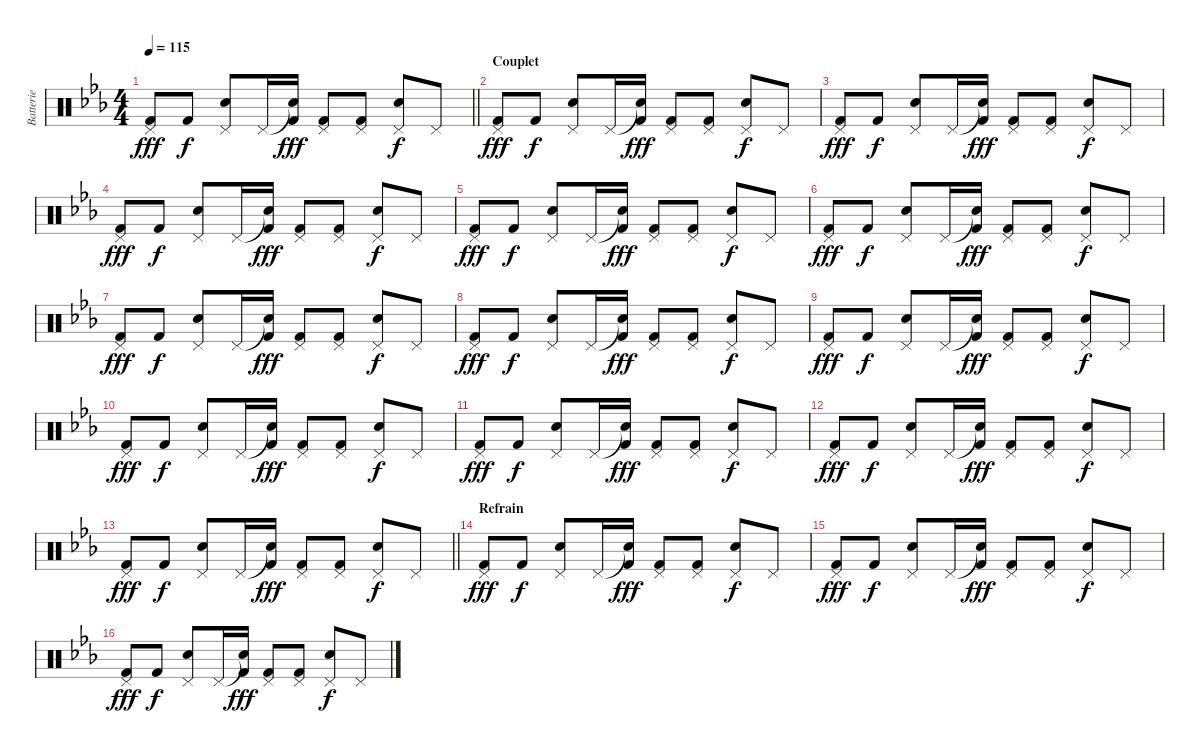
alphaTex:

\track ("Batterie" "Batterie") {instrument percussion}
\staff {score}
\articulation defaults
\ts (4 4)
\tempo 115
\clef neutral
\barLineRight lightlight
\ks eb
("Pedal Hi-Hat (hit)" "Kick (hit) 2").8{dy fff} "Kick (hit) 2".8{dy f} ("Pedal Hi-Hat (hit)" "Snare (hit) 2").8 "Pedal Hi-Hat (hit)".16 ("Snare (hit)"{t} "Kick (hit) 2").16{dy fff} ("Pedal Hi-Hat (hit)" "Kick (hit) 2").8 ("Pedal Hi-Hat (hit)" "Kick (hit) 2").8 ("Pedal Hi-Hat (hit)" "Snare (hit) 2").8{dy f} "Pedal Hi-Hat (hit)".8 |
\section ("" "Couplet")
("Pedal Hi-Hat (hit)" "Kick (hit) 2").8{dy fff} "Kick (hit) 2".8{dy f} ("Pedal Hi-Hat (hit)" "Snare (hit) 2").8 "Pedal Hi-Hat (hit)".16 ("Snare (hit)"{t} "Kick (hit) 2").16{dy fff} ("Pedal Hi-Hat (hit)" "Kick (hit) 2").8 ("Pedal Hi-Hat (hit)" "Kick (hit) 2").8 ("Pedal Hi-Hat (hit)" "Snare (hit) 2").8{dy f} "Pedal Hi-Hat (hit)".8 |
("Pedal Hi-Hat (hit)" "Kick (hit) 2").8{dy fff} "Kick (hit) 2".8{dy f} ("Pedal Hi-Hat (hit)" "Snare (hit) 2").8 "Pedal Hi-Hat (hit)".16 ("Snare (hit)"{t} "Kick (hit) 2").16{dy fff} ("Pedal Hi-Hat (hit)" "Kick (hit) 2").8 ("Pedal Hi-Hat (hit)" "Kick (hit) 2").8 ("Pedal Hi-Hat (hit)" "Snare (hit) 2").8{dy f} "Pedal Hi-Hat (hit)".8 |
("Pedal Hi-Hat (hit)" "Kick (hit) 2").8{dy fff} "Kick (hit) 2".8{dy f} ("Pedal Hi-Hat (hit)" "Snare (hit) 2").8 "Pedal Hi-Hat (hit)".16 ("Snare (hit)"{t} "Kick (hit) 2").16{dy fff} ("Pedal Hi-Hat (hit)" "Kick (hit) 2").8 ("Pedal Hi-Hat (hit)" "Kick (hit) 2").8 ("Pedal Hi-Hat (hit)" "Snare (hit) 2").8{dy f} "Pedal Hi-Hat (hit)".8 |
("Pedal Hi-Hat (hit)" "Kick (hit) 2").8{dy fff} "Kick (hit) 2".8{dy f} ("Pedal Hi-Hat (hit)" "Snare (hit) 2").8 "Pedal Hi-Hat (hit)".16 ("Snare (hit)"{t} "Kick (hit) 2").16{dy fff} ("Pedal Hi-Hat (hit)" "Kick (hit) 2").8 ("Pedal Hi-Hat (hit)" "Kick (hit) 2").8 ("Pedal Hi-Hat (hit)" "Snare (hit) 2").8{dy f} "Pedal Hi-Hat (hit)".8 |
("Pedal Hi-Hat (hit)" "Kick (hit) 2").8{dy fff} "Kick (hit) 2".8{dy f} ("Pedal Hi-Hat (hit)" "Snare (hit) 2").8 "Pedal Hi-Hat (hit)".16 ("Snare (hit)"{t} "Kick (hit) 2").16{dy fff} ("Pedal Hi-Hat (hit)" "Kick (hit) 2").8 ("Pedal Hi-Hat (hit)" "Kick (hit) 2").8 ("Pedal Hi-Hat (hit)" "Snare (hit) 2").8{dy f} "Pedal Hi-Hat (hit)".8 |
("Pedal Hi-Hat (hit)" "Kick (hit) 2").8{dy fff} "Kick (hit) 2".8{dy f} ("Pedal Hi-Hat (hit)" "Snare (hit) 2").8 "Pedal Hi-Hat (hit)".16 ("Snare (hit)"{t} "Kick (hit) 2").16{dy fff} ("Pedal Hi-Hat (hit)" "Kick (hit) 2").8 ("Pedal Hi-Hat (hit)" "Kick (hit) 2").8 ("Pedal Hi-Hat (hit)" "Snare (hit) 2").8{dy f} "Pedal Hi-Hat (hit)".8 |
("Pedal Hi-Hat (hit)" "Kick (hit) 2").8{dy fff} "Kick (hit) 2".8{dy f} ("Pedal Hi-Hat (hit)" "Snare (hit) 2").8 "Pedal Hi-Hat (hit)".16 ("Snare (hit)"{t} "Kick (hit) 2").16{dy fff} ("Pedal Hi-Hat (hit)" "Kick (hit) 2").8 ("Pedal Hi-Hat (hit)" "Kick (hit) 2").8 ("Pedal Hi-Hat (hit)" "Snare (hit) 2").8{dy f} "Pedal Hi-Hat (hit)".8 |
("Pedal Hi-Hat (hit)" "Kick (hit) 2").8{dy fff} "Kick (hit) 2".8{dy f} ("Pedal Hi-Hat (hit)" "Snare (hit) 2").8 "Pedal Hi-Hat (hit)".16 ("Snare (hit)"{t} "Kick (hit) 2").16{dy fff} ("Pedal Hi-Hat (hit)" "Kick (hit) 2").8 ("Pedal Hi-Hat (hit)" "Kick (hit) 2").8 ("Pedal Hi-Hat (hit)" "Snare (hit) 2").8{dy f} "Pedal Hi-Hat (hit)".8 |
("Pedal Hi-Hat (hit)" "Kick (hit) 2").8{dy fff} "Kick (hit) 2".8{dy f} ("Pedal Hi-Hat (hit)" "Snare (hit) 2").8 "Pedal Hi-Hat (hit)".16 ("Snare (hit)"{t} "Kick (hit) 2").16{dy fff} ("Pedal Hi-Hat (hit)" "Kick (hit) 2").8 ("Pedal Hi-Hat (hit)" "Kick (hit) 2").8 ("Pedal Hi-Hat (hit)" "Snare (hit) 2").8{dy f} "Pedal Hi-Hat (hit)".8 |
("Pedal Hi-Hat (hit)" "Kick (hit) 2").8{dy fff} "Kick (hit) 2".8{dy f} ("Pedal Hi-Hat (hit)" "Snare (hit) 2").8 "Pedal Hi-Hat (hit)".16 ("Snare (hit)"{t} "Kick (hit) 2").16{dy fff} ("Pedal Hi-Hat (hit)" "Kick (hit) 2").8 ("Pedal Hi-Hat (hit)" "Kick (hit) 2").8 ("Pedal Hi-Hat (hit)" "Snare (hit) 2").8{dy f} "Pedal Hi-Hat (hit)".8 |
("Pedal Hi-Hat (hit)" "Kick (hit) 2").8{dy fff} "Kick (hit) 2".8{dy f} ("Pedal Hi-Hat (hit)" "Snare (hit) 2").8 "Pedal Hi-Hat (hit)".16 ("Snare (hit)"{t} "Kick (hit) 2").16{dy fff} ("Pedal Hi-Hat (hit)" "Kick (hit) 2").8 ("Pedal Hi-Hat (hit)" "Kick (hit) 2").8 ("Pedal Hi-Hat (hit)" "Snare (hit) 2").8{dy f} "Pedal Hi-Hat (hit)".8 |
\barLineRight lightlight
("Pedal Hi-Hat (hit)" "Kick (hit) 2").8{dy fff} "Kick (hit) 2".8{dy f} ("Pedal Hi-Hat (hit)" "Snare (hit) 2").8 "Pedal Hi-Hat (hit)".16 ("Snare (hit)"{t} "Kick (hit) 2").16{dy fff} ("Pedal Hi-Hat (hit)" "Kick (hit) 2").8 ("Pedal Hi-Hat (hit)" "Kick (hit) 2").8 ("Pedal Hi-Hat (hit)" "Snare (hit) 2").8{dy f} "Pedal Hi-Hat (hit)".8 |
\section ("" "Refrain")
("Pedal Hi-Hat (hit)" "Kick (hit) 2").8{dy fff} "Kick (hit) 2".8{dy f} ("Pedal Hi-Hat (hit)" "Snare (hit) 2").8 "Pedal Hi-Hat (hit)".16 ("Snare (hit)"{t} "Kick (hit) 2").16{dy fff} ("Pedal Hi-Hat (hit)" "Kick (hit) 2").8 ("Pedal Hi-Hat (hit)" "Kick (hit) 2").8 ("Pedal Hi-Hat (hit)" "Snare (hit) 2").8{dy f} "Pedal Hi-Hat (hit)".8 |
("Pedal Hi-Hat (hit)" "Kick (hit) 2").8{dy fff} "Kick (hit) 2".8{dy f} ("Pedal Hi-Hat (hit)" "Snare (hit) 2").8 "Pedal Hi-Hat (hit)".16 ("Snare (hit)"{t} "Kick (hit) 2").16{dy fff} ("Pedal Hi-Hat (hit)" "Kick (hit) 2").8 ("Pedal Hi-Hat (hit)" "Kick (hit) 2").8 ("Pedal Hi-Hat (hit)" "Snare (hit) 2").8{dy f} "Pedal Hi-Hat (hit)".8 |
("Pedal Hi-Hat (hit)" "Kick (hit) 2").8{dy fff} "Kick (hit) 2".8{dy f} ("Pedal Hi-Hat (hit)" "Snare (hit) 2").8 "Pedal Hi-Hat (hit)".16 ("Snare (hit)"{t} "Kick (hit) 2").16{dy fff} ("Pedal Hi-Hat (hit)" "Kick (hit) 2").8 ("Pedal Hi-Hat (hit)" "Kick (hit) 2").8 ("Pedal Hi-Hat (hit)" "Snare (hit) 2").8{dy f} "Pedal Hi-Hat (hit)".8
